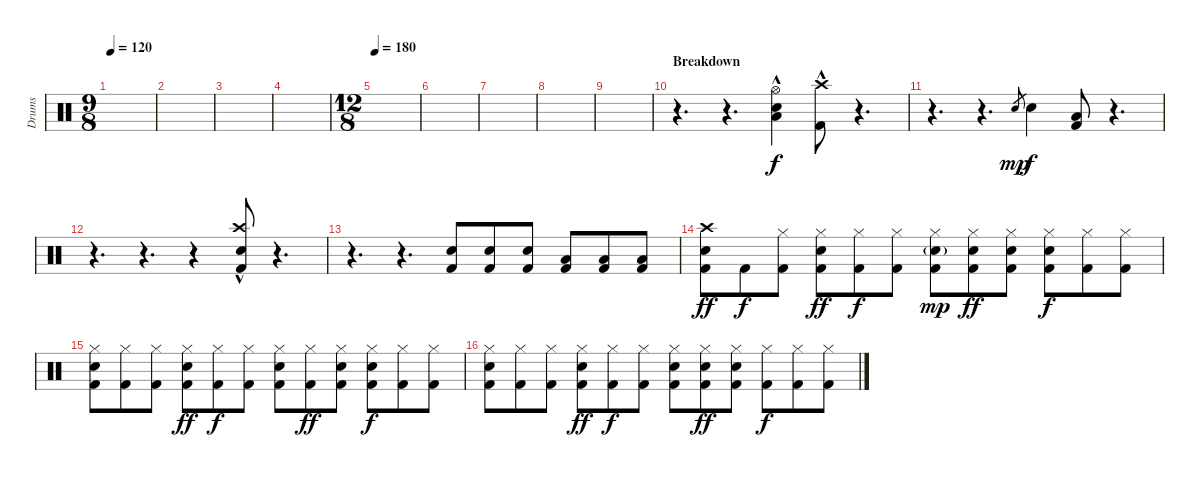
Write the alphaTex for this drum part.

\track ("Drums" "Drums") {instrument percussion}
\staff {score}
\articulation defaults
\ts (9 8)
\tempo 120
\clef neutral
\ks c
|
|
|
|
\ts (12 8)
\tempo 180
|
|
|
|
|
\section ("" "Breakdown")
r.4{d} r.4{d} ("Hi-Hat (open)"{hac} "Electric Snare (hit)"{hac} "Low Tom (hit)"{hac}).4 ("Crash high (hit)"{hac} "Kick (hit) 2"{hac}).8 r.4{d} |
r.4{d} r.4{d} "Electric Snare (hit)".8{gr dy mp} "Electric Snare (hit)".4{dy f} ("Low Tom (hit)" "Kick (hit) 2").8 r.4{d} |
r.4{d} r.4{d} r.4 ("Crash high (hit)"{hac} "Electric Snare (hit)" "Kick (hit) 2"{hac}).8 r.4{d} |
r.4{d} r.4{d} ("Electric Snare (hit)" "Kick (hit) 2").8 ("Electric Snare (hit)" "Kick (hit) 2").8 ("Electric Snare (hit)" "Kick (hit) 2").8 ("Low Tom (hit)" "Kick (hit) 2").8 ("Low Tom (hit)" "Kick (hit) 2").8 ("Low Tom (hit)" "Kick (hit) 2").8 |
("Crash high (hit)" "Electric Snare (hit)" "Kick (hit) 2").8{dy ff} "Kick (hit) 2".8{dy f} ("Hi-Hat (closed)" "Kick (hit) 2").8 ("Hi-Hat (closed)" "Electric Snare (hit)" "Kick (hit) 2").8{dy ff} ("Hi-Hat (closed)" "Kick (hit) 2").8{dy f} ("Hi-Hat (closed)" "Kick (hit) 2").8 ("Hi-Hat (closed)" "Electric Snare (hit)"{g} "Kick (hit) 2").8{dy mp} ("Hi-Hat (closed)" "Electric Snare (hit)" "Kick (hit) 2").8{dy ff} ("Hi-Hat (closed)" "Electric Snare (hit)" "Kick (hit) 2").8 ("Hi-Hat (closed)" "Electric Snare (hit)" "Kick (hit) 2").8{dy f} ("Hi-Hat (closed)" "Kick (hit) 2").8 ("Hi-Hat (closed)" "Kick (hit) 2").8 |
("Hi-Hat (closed)" "Electric Snare (hit)" "Kick (hit) 2").8 ("Hi-Hat (closed)" "Kick (hit) 2").8 ("Hi-Hat (closed)" "Kick (hit) 2").8 ("Hi-Hat (closed)" "Electric Snare (hit)" "Kick (hit) 2").8{dy ff} ("Hi-Hat (closed)" "Kick (hit) 2").8{dy f} ("Hi-Hat (closed)" "Kick (hit) 2").8 ("Hi-Hat (closed)" "Electric Snare (hit)" "Kick (hit) 2").8 ("Hi-Hat (closed)" "Kick (hit) 2").8{dy ff} ("Hi-Hat (closed)" "Electric Snare (hit)" "Kick (hit) 2").8 ("Hi-Hat (closed)" "Electric Snare (hit)" "Kick (hit) 2").8{dy f} ("Hi-Hat (closed)" "Kick (hit) 2").8 ("Hi-Hat (closed)" "Kick (hit) 2").8 |
("Hi-Hat (closed)" "Electric Snare (hit)" "Kick (hit) 2").8 ("Hi-Hat (closed)" "Kick (hit) 2").8 ("Hi-Hat (closed)" "Kick (hit) 2").8 ("Hi-Hat (closed)" "Electric Snare (hit)" "Kick (hit) 2").8{dy ff} ("Hi-Hat (closed)" "Kick (hit) 2").8{dy f} ("Hi-Hat (closed)" "Kick (hit) 2").8 ("Hi-Hat (closed)" "Electric Snare (hit)" "Kick (hit) 2").8 ("Hi-Hat (closed)" "Electric Snare (hit)" "Kick (hit) 2").8{dy ff} ("Hi-Hat (closed)" "Electric Snare (hit)" "Kick (hit) 2").8 ("Hi-Hat (closed)" "Kick (hit) 2").8{dy f} ("Hi-Hat (closed)" "Kick (hit) 2").8 ("Hi-Hat (closed)" "Kick (hit) 2").8
